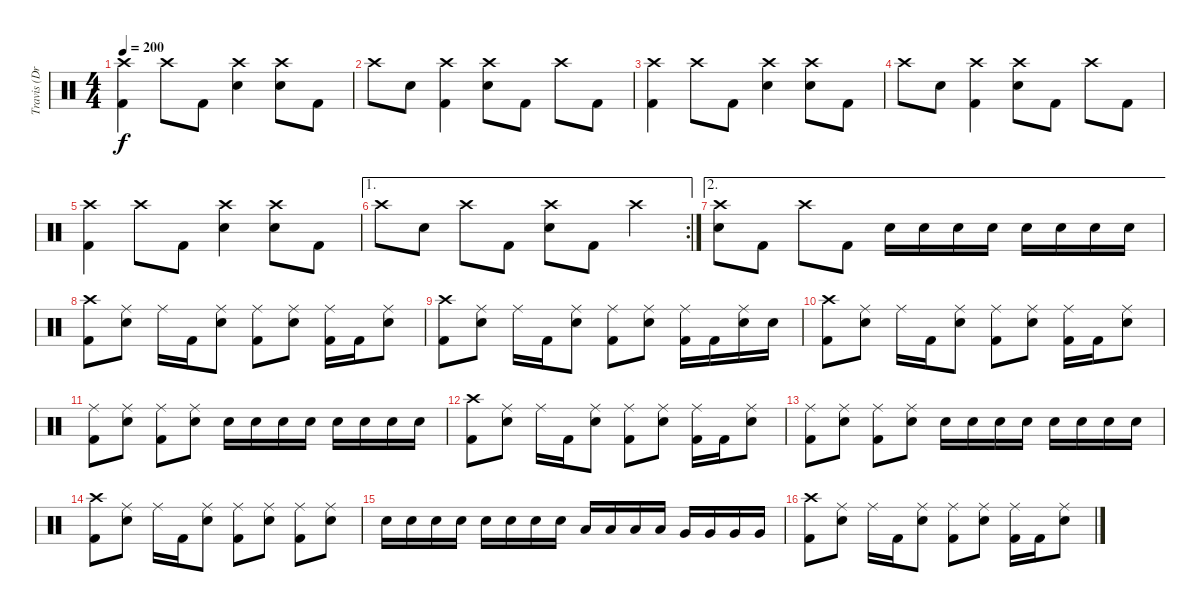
\track ("Travis (Drums)" "Travis (Dr") {instrument percussion}
\staff {score}
\articulation defaults
\ts (4 4)
\tempo 200
\clef neutral
\ks c
("Crash high (hit)" "Kick (hit) 2").4{dy f} "Crash high (hit)".8 "Kick (hit) 2".8 ("Crash high (hit)" "Electric Snare (hit)").4 ("Crash high (hit)" "Electric Snare (hit)").8 "Kick (hit) 2".8 |
"Crash high (hit)".8 "Electric Snare (hit)".8 ("Crash high (hit)" "Kick (hit) 2").4 ("Crash high (hit)" "Electric Snare (hit)").8 "Kick (hit) 2".8 "Crash high (hit)".8 "Kick (hit) 2".8 |
("Crash high (hit)" "Kick (hit) 2").4 "Crash high (hit)".8 "Kick (hit) 2".8 ("Crash high (hit)" "Electric Snare (hit)").4 ("Crash high (hit)" "Electric Snare (hit)").8 "Kick (hit) 2".8 |
"Crash high (hit)".8 "Electric Snare (hit)".8 ("Crash high (hit)" "Kick (hit) 2").4 ("Crash high (hit)" "Electric Snare (hit)").8 "Kick (hit) 2".8 "Crash high (hit)".8 "Kick (hit) 2".8 |
("Crash high (hit)" "Kick (hit) 2").4 "Crash high (hit)".8 "Kick (hit) 2".8 ("Crash high (hit)" "Electric Snare (hit)").4 ("Crash high (hit)" "Electric Snare (hit)").8 "Kick (hit) 2".8 |
\ae 1
\rc 2 "Crash high (hit)".8 "Electric Snare (hit)".8 "Crash high (hit)".8 "Kick (hit) 2".8
("Crash high (hit)" "Electric Snare (hit)").8 "Kick (hit) 2".8 "Crash high (hit)".4 |
\ae 2
("Crash high (hit)" "Electric Snare (hit)").8 "Kick (hit) 2".8 "Crash high (hit)".8 "Kick (hit) 2".8 "Electric Snare (hit)".16 "Electric Snare (hit)".16 "Electric Snare (hit)".16 "Electric Snare (hit)".16 "Electric Snare (hit)".16 "Electric Snare (hit)".16 "Electric Snare (hit)".16 "Electric Snare (hit)".16 |
("Crash high (hit)" "Kick (hit) 2").8 ("Ride (middle)" "Electric Snare (hit)").8 "Ride (middle)".16 "Kick (hit) 2".16 ("Ride (middle)" "Electric Snare (hit)").8 ("Ride (middle)" "Kick (hit) 2").8 ("Ride (middle)" "Electric Snare (hit)").8 ("Ride (middle)" "Kick (hit) 2").16 "Kick (hit) 2".16 ("Ride (middle)" "Electric Snare (hit)").8 |
("Crash high (hit)" "Kick (hit) 2").8 ("Ride (middle)" "Electric Snare (hit)").8 "Ride (middle)".16 "Kick (hit) 2".16 ("Ride (middle)" "Electric Snare (hit)").8 ("Ride (middle)" "Kick (hit) 2").8 ("Ride (middle)" "Electric Snare (hit)").8 ("Ride (middle)" "Kick (hit) 2").16 "Kick (hit) 2".16 ("Ride (middle)" "Electric Snare (hit)").16 "Electric Snare (hit)".16 |
("Crash high (hit)" "Kick (hit) 2").8 ("Ride (middle)" "Electric Snare (hit)").8 "Ride (middle)".16 "Kick (hit) 2".16 ("Ride (middle)" "Electric Snare (hit)").8 ("Ride (middle)" "Kick (hit) 2").8 ("Ride (middle)" "Electric Snare (hit)").8 ("Ride (middle)" "Kick (hit) 2").16 "Kick (hit) 2".16 ("Ride (middle)" "Electric Snare (hit)").8 |
("Ride (middle)" "Kick (hit) 2").8 ("Ride (middle)" "Electric Snare (hit)").8 ("Ride (middle)" "Kick (hit) 2").8 ("Ride (middle)" "Electric Snare (hit)").8 "Electric Snare (hit)".16 "Electric Snare (hit)".16 "Electric Snare (hit)".16 "Electric Snare (hit)".16 "Electric Snare (hit)".16 "Electric Snare (hit)".16 "Electric Snare (hit)".16 "Electric Snare (hit)".16 |
("Crash high (hit)" "Kick (hit) 2").8 ("Ride (middle)" "Electric Snare (hit)").8 "Ride (middle)".16 "Kick (hit) 2".16 ("Ride (middle)" "Electric Snare (hit)").8 ("Ride (middle)" "Kick (hit) 2").8 ("Ride (middle)" "Electric Snare (hit)").8 ("Ride (middle)" "Kick (hit) 2").16 "Kick (hit) 2".16 ("Ride (middle)" "Electric Snare (hit)").8 |
("Ride (middle)" "Kick (hit) 2").8 ("Ride (middle)" "Electric Snare (hit)").8 ("Ride (middle)" "Kick (hit) 2").8 ("Ride (middle)" "Electric Snare (hit)").8 "Electric Snare (hit)".16 "Electric Snare (hit)".16 "Electric Snare (hit)".16 "Electric Snare (hit)".16 "Electric Snare (hit)".16 "Electric Snare (hit)".16 "Electric Snare (hit)".16 "Electric Snare (hit)".16 |
("Crash high (hit)" "Kick (hit) 2").8 ("Ride (middle)" "Electric Snare (hit)").8 "Ride (middle)".16 "Kick (hit) 2".16 ("Ride (middle)" "Electric Snare (hit)").8 ("Ride (middle)" "Kick (hit) 2").8 ("Ride (middle)" "Electric Snare (hit)").8 ("Ride (middle)" "Kick (hit) 2").8 ("Ride (middle)" "Electric Snare (hit)").8 |
"Electric Snare (hit)".16 "Electric Snare (hit)".16 "Electric Snare (hit)".16 "Electric Snare (hit)".16 "Electric Snare (hit)".16 "Electric Snare (hit)".16 "Electric Snare (hit)".16 "Electric Snare (hit)".16 "Low Tom (hit)".16 "Low Tom (hit)".16 "Low Tom (hit)".16 "Low Tom (hit)".16 "Very Low Tom (hit)".16 "Very Low Tom (hit)".16 "Very Low Tom (hit)".16 "Very Low Tom (hit)".16 |
("Crash high (hit)" "Kick (hit) 2").8 ("Ride (middle)" "Electric Snare (hit)").8 "Ride (middle)".16 "Kick (hit) 2".16 ("Ride (middle)" "Electric Snare (hit)").8 ("Ride (middle)" "Kick (hit) 2").8 ("Ride (middle)" "Electric Snare (hit)").8 ("Ride (middle)" "Kick (hit) 2").16 "Kick (hit) 2".16 ("Ride (middle)" "Electric Snare (hit)").8
